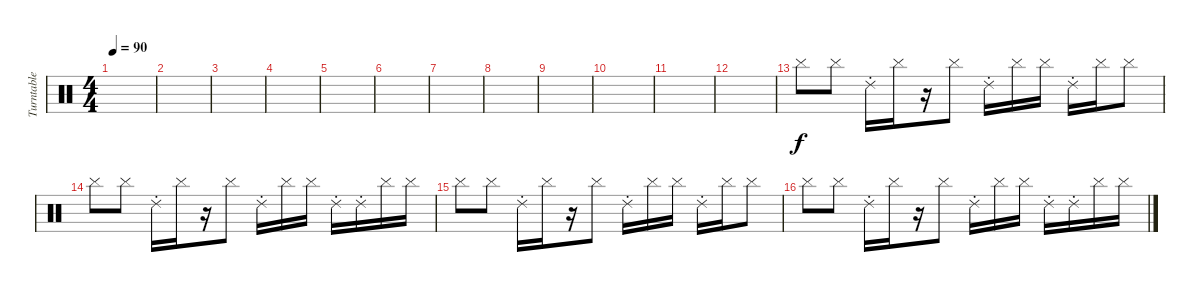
\track ("Turntable" "Turntable") {instrument percussion}
\staff {score}
\articulation defaults
\ts (4 4)
\tempo 90
\clef neutral
\ks c
|
|
|
|
|
|
|
|
|
|
|
|
"Cymbal (hit)".8 "Cymbal (hit)".8 "Ride (choke) 2".16 "Cymbal (hit)".16 r.16 "Cymbal (hit)".8 "Ride (choke) 2".16 "Cymbal (hit)".16 "Cymbal (hit)".16 "Ride (choke) 2".16 "Cymbal (hit)".16 "Cymbal (hit)".8 |
"Cymbal (hit)".8 "Cymbal (hit)".8 "Ride (choke) 2".16 "Cymbal (hit)".16 r.16 "Cymbal (hit)".8 "Ride (choke) 2".16 "Cymbal (hit)".16 "Cymbal (hit)".16 "Ride (choke) 2".16 "Ride (choke) 2".16 "Cymbal (hit)".16 "Cymbal (hit)".16 |
"Cymbal (hit)".8 "Cymbal (hit)".8 "Ride (choke) 2".16 "Cymbal (hit)".16 r.16 "Cymbal (hit)".8 "Ride (choke) 2".16 "Cymbal (hit)".16 "Cymbal (hit)".16 "Ride (choke) 2".16 "Cymbal (hit)".16 "Cymbal (hit)".8 |
"Cymbal (hit)".8 "Cymbal (hit)".8 "Ride (choke) 2".16 "Cymbal (hit)".16 r.16 "Cymbal (hit)".8 "Ride (choke) 2".16 "Cymbal (hit)".16 "Cymbal (hit)".16 "Ride (choke) 2".16 "Ride (choke) 2".16 "Cymbal (hit)".16 "Cymbal (hit)".16
